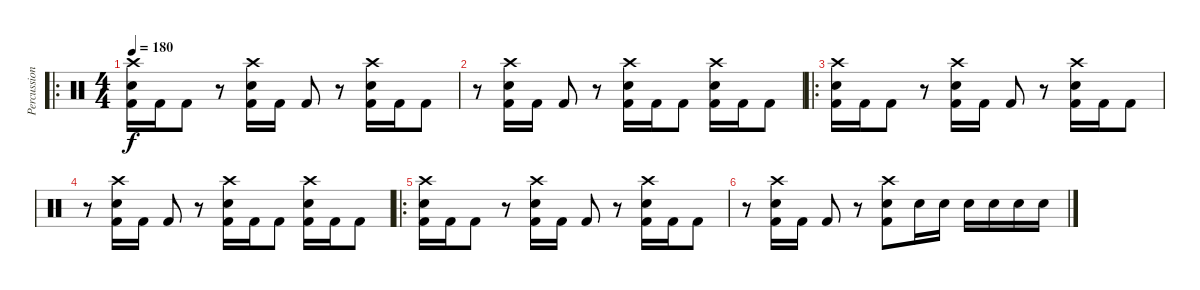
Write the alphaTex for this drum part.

\track ("Percussion" "Percussion") {instrument percussion}
\staff {score}
\articulation defaults
\ro
\ts (4 4)
\tempo 180
\clef neutral
\ks c
("Crash high (hit)" "Electric Snare (hit)" "Kick (hit) 2").16{dy f} "Kick (hit) 2".16 "Kick (hit) 2".8 r.8 ("Crash high (hit)" "Electric Snare (hit)" "Kick (hit) 2").16 "Kick (hit) 2".16 "Kick (hit) 2".8 r.8 ("Crash high (hit)" "Electric Snare (hit)" "Kick (hit) 2").16 "Kick (hit) 2".16 "Kick (hit) 2".8 |
r.8 ("Crash high (hit)" "Electric Snare (hit)" "Kick (hit) 2").16 "Kick (hit) 2".16 "Kick (hit) 2".8 r.8 ("Crash high (hit)" "Electric Snare (hit)" "Kick (hit) 2").16 "Kick (hit) 2".16 "Kick (hit) 2".8 ("Crash high (hit)" "Electric Snare (hit)" "Kick (hit) 2").16 "Kick (hit) 2".16 "Kick (hit) 2".8 |
\ro
("Crash high (hit)" "Electric Snare (hit)" "Kick (hit) 2").16 "Kick (hit) 2".16 "Kick (hit) 2".8 r.8 ("Crash high (hit)" "Electric Snare (hit)" "Kick (hit) 2").16 "Kick (hit) 2".16 "Kick (hit) 2".8 r.8 ("Crash high (hit)" "Electric Snare (hit)" "Kick (hit) 2").16 "Kick (hit) 2".16 "Kick (hit) 2".8 |
r.8 ("Crash high (hit)" "Electric Snare (hit)" "Kick (hit) 2").16 "Kick (hit) 2".16 "Kick (hit) 2".8 r.8 ("Crash high (hit)" "Electric Snare (hit)" "Kick (hit) 2").16 "Kick (hit) 2".16 "Kick (hit) 2".8 ("Crash high (hit)" "Electric Snare (hit)" "Kick (hit) 2").16 "Kick (hit) 2".16 "Kick (hit) 2".8 |
\ro
("Crash high (hit)" "Electric Snare (hit)" "Kick (hit) 2").16 "Kick (hit) 2".16 "Kick (hit) 2".8 r.8 ("Crash high (hit)" "Electric Snare (hit)" "Kick (hit) 2").16 "Kick (hit) 2".16 "Kick (hit) 2".8 r.8 ("Crash high (hit)" "Electric Snare (hit)" "Kick (hit) 2").16 "Kick (hit) 2".16 "Kick (hit) 2".8 |
r.8 ("Crash high (hit)" "Electric Snare (hit)" "Kick (hit) 2").16 "Kick (hit) 2".16 "Kick (hit) 2".8 r.8 ("Crash high (hit)" "Electric Snare (hit)" "Kick (hit) 2").8 "Electric Snare (hit)".16 "Electric Snare (hit)".16 "Electric Snare (hit)".16 "Electric Snare (hit)".16 "Electric Snare (hit)".16 "Electric Snare (hit)".16
